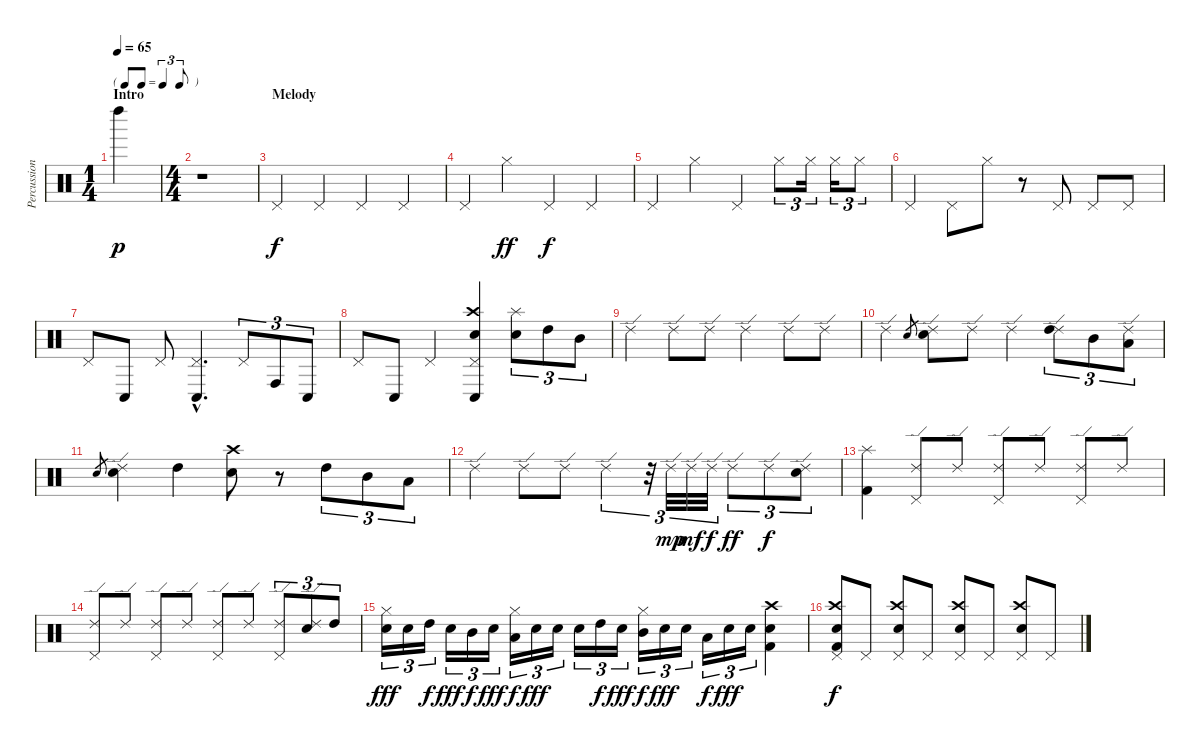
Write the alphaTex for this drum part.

\track ("Percussion" "Percussion") {instrument percussion}
\staff {score}
\articulation defaults
\ts (1 4)
\tf triplet8th
\section ("" "Intro")
\tempo 65
\clef neutral
\ks c "Left Maraca (hit)".4{dy p}
|
\ts (4 4)
r.1 |
\section ("" "Melody")
"Pedal Hi-Hat (hit)".4{dy f} "Pedal Hi-Hat (hit)".4 "Pedal Hi-Hat (hit)".4 "Pedal Hi-Hat (hit)".4 |
"Pedal Hi-Hat (hit)".4 "Hi-Hat (closed)".4{dy ff} "Pedal Hi-Hat (hit)".4{dy f} "Pedal Hi-Hat (hit)".4 |
"Pedal Hi-Hat (hit)".4 "Hi-Hat (closed)".4 "Pedal Hi-Hat (hit)".4 "Hi-Hat (closed)".8{tu (3 2)} "Hi-Hat (closed)".16{tu (3 2)} "Hi-Hat (closed)".16{tu (3 2)} "Hi-Hat (closed)".8{tu (3 2)} |
"Pedal Hi-Hat (hit)".4 "Pedal Hi-Hat (hit)".8 "Hi-Hat (closed)".8 r.8 "Pedal Hi-Hat (hit)".8 "Pedal Hi-Hat (hit)".8 "Pedal Hi-Hat (hit)".8 |
"Pedal Hi-Hat (hit)".8 "Conga low (hit)".8 "Pedal Hi-Hat (hit)".8 ("Pedal Hi-Hat (hit)"{hac} "Conga low (hit)"{hac}).4{d} "Pedal Hi-Hat (hit)".8{tu (3 2)} "Conga high (hit)".8{tu (3 2)} "Conga low (hit)".8{tu (3 2)} |
"Pedal Hi-Hat (hit)".8 "Conga low (hit)".8 "Pedal Hi-Hat (hit)".4 ("Crash high (hit)" "Pedal Hi-Hat (hit)" "Snare (hit) 2" "Conga low (hit)").4 ("Splash (hit)" "Snare (hit) 2").8{tu (3 2)} "High Tom (hit)".8{tu (3 2)} "Mid Tom (hit)".8{tu (3 2)} |
"Ride (edge) 2".4 "Ride (edge) 2".8 "Ride (edge) 2".8 "Ride (edge) 2".4 "Ride (edge) 2".8 "Ride (edge) 2".8 |
"Ride (edge) 2".4 "Snare (hit) 2".8{gr} ("Ride (edge) 2" "Snare (hit) 2").8 "Ride (edge) 2".8 "Ride (edge) 2".4 ("Ride (edge) 2" "High Tom (hit)").8{tu (3 2)} "Mid Tom (hit)".8{tu (3 2)} ("Ride (edge) 2" "Low Tom (hit)").8{tu (3 2)} |
"Snare (hit) 2".8{gr} ("Ride (edge) 2" "Snare (hit) 2").4 "High Tom (hit)".4 ("Crash high (hit)" "Electric Snare (hit)").8 r.8 "High Tom (hit)".8{tu (3 2)} "Mid Tom (hit)".8{tu (3 2)} "Low Tom (hit)".8{tu (3 2)} |
"Ride (edge) 2".4 "Ride (edge) 2".8 "Ride (edge) 2".8 "Ride (edge) 2".4{tu (3 2)} r.32{tu (3 2)} "Ride (edge) 2".32{tu (3 2) dy mp} "Ride (edge) 2".32{tu (3 2) dy mf} "Ride (edge) 2".32{tu (3 2) dy f} "Ride (edge) 2".8{tu (3 2) dy ff} "Ride (edge) 2".8{tu (3 2) dy f} ("Ride (edge) 2" "Snare (hit) 2").8{tu (3 2)} |
("Splash (hit)" "Kick (hit) 2").4 ("Ride (edge) 2" "Pedal Hi-Hat (hit)").8 "Ride (edge) 2".8 ("Ride (edge) 2" "Pedal Hi-Hat (hit)").8 "Ride (edge) 2".8 ("Ride (edge) 2" "Pedal Hi-Hat (hit)").8 "Ride (edge) 2".8 |
("Ride (edge) 2" "Pedal Hi-Hat (hit)").8 "Ride (edge) 2".8 ("Ride (edge) 2" "Pedal Hi-Hat (hit)").8 "Ride (edge) 2".8 ("Ride (edge) 2" "Pedal Hi-Hat (hit)").8 "Ride (edge) 2".8 ("Ride (edge) 2" "Pedal Hi-Hat (hit)").8{tu (3 2)} ("Ride (edge) 2" "Snare (hit) 2").8{tu (3 2)} "High Tom (hit)".8{tu (3 2)} |
("Hi-Hat (closed)" "Snare (hit) 2").16{tu (3 2) dy fff} "Snare (hit) 2".16{tu (3 2)} "High Tom (hit)".16{tu (3 2) dy f} "Snare (hit) 2".16{tu (3 2) dy fff} "Mid Tom (hit)".16{tu (3 2) dy f} "Snare (hit) 2".16{tu (3 2) dy fff} ("Hi-Hat (closed)" "Low Tom (hit)").16{tu (3 2) dy f} "Snare (hit) 2".16{tu (3 2) dy fff} "Snare (hit) 2".16{tu (3 2)} "Snare (hit) 2".16{tu (3 2)} "High Tom (hit)".16{tu (3 2) dy f} "Snare (hit) 2".16{tu (3 2) dy fff} ("Hi-Hat (closed)" "Mid Tom (hit)").16{tu (3 2) dy f} "Snare (hit) 2".16{tu (3 2) dy fff} "Snare (hit) 2".16{tu (3 2)} "Low Tom (hit)".16{tu (3 2) dy f} "Snare (hit) 2".16{tu (3 2) dy fff} "Snare (hit) 2".16{tu (3 2)} ("Crash high (hit)" "Snare (hit) 2" "Kick (hit) 2").4 |
("Crash high (hit)" "Pedal Hi-Hat (hit)" "Snare (hit) 2" "Kick (hit) 2").8{dy f} "Pedal Hi-Hat (hit)".8 ("Crash high (hit)" "Pedal Hi-Hat (hit)" "Snare (hit) 2").8 "Pedal Hi-Hat (hit)".8 ("Crash high (hit)" "Pedal Hi-Hat (hit)" "Snare (hit) 2").8 "Pedal Hi-Hat (hit)".8 ("Crash high (hit)" "Pedal Hi-Hat (hit)" "Snare (hit) 2").8 "Pedal Hi-Hat (hit)".8
